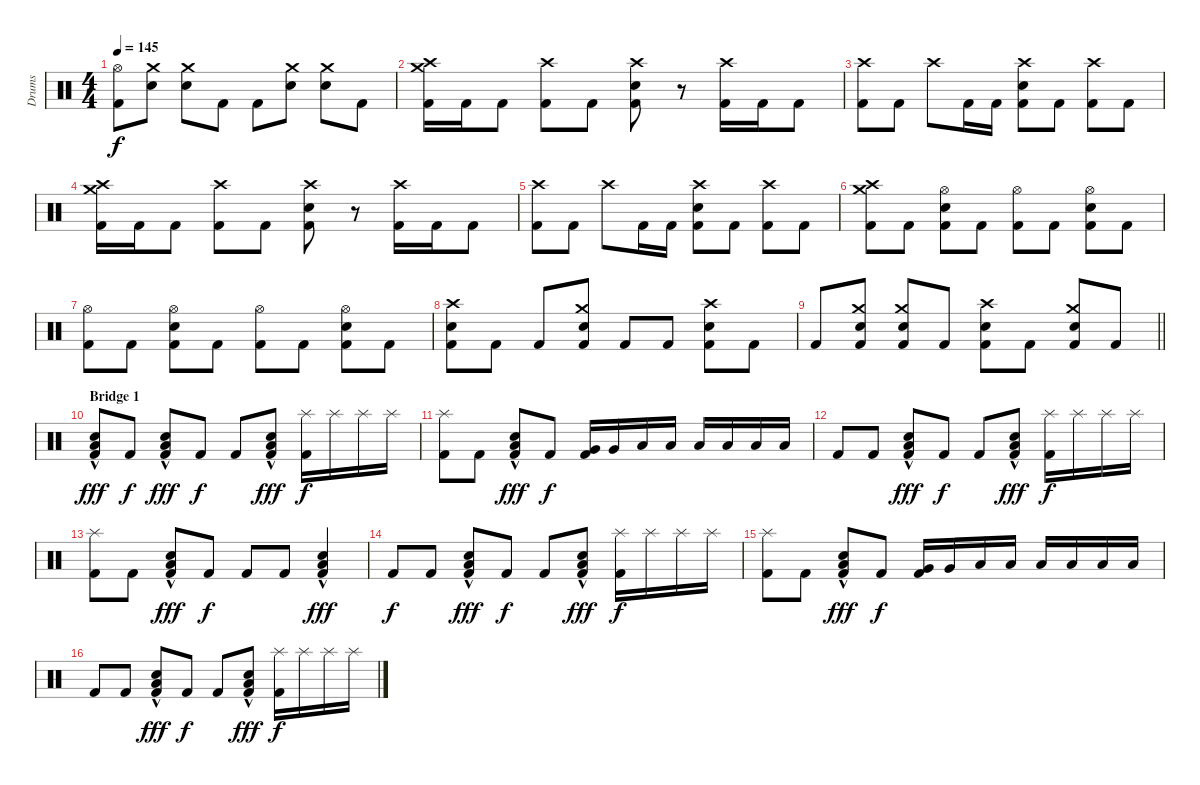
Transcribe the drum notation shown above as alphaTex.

\track ("Drums" "Drums") {instrument percussion}
\staff {score}
\articulation defaults
\ts (4 4)
\tempo 145
\clef neutral
\ks c
("Hi-Hat (open)" "Kick (hit) 2").8{dy f} ("Crash medium (hit)" "Electric Snare (hit)").8 ("Crash medium (hit)" "Electric Snare (hit)").8 "Kick (hit) 2".8 "Kick (hit) 2".8 ("Crash medium (hit)" "Electric Snare (hit)").8 ("Crash medium (hit)" "Electric Snare (hit)").8 "Kick (hit) 2".8 |
("Crash high (hit)" "Crash medium (hit)" "Kick (hit) 2").16 "Kick (hit) 2".16 "Kick (hit) 2".8 ("Crash high (hit)" "Kick (hit) 2").8 "Kick (hit) 2".8 ("Crash high (hit)" "Electric Snare (hit)" "Kick (hit) 2").8 r.8 ("Crash high (hit)" "Kick (hit) 2").16 "Kick (hit) 2".16 "Kick (hit) 2".8 |
("Crash high (hit)" "Kick (hit) 2").8 "Kick (hit) 2".8 "Crash high (hit)".8 "Kick (hit) 2".16 "Kick (hit) 2".16 ("Crash high (hit)" "Electric Snare (hit)" "Kick (hit) 2").8 "Kick (hit) 2".8 ("Crash high (hit)" "Kick (hit) 2").8 "Kick (hit) 2".8 |
("Crash high (hit)" "Crash medium (hit)" "Kick (hit) 2").16 "Kick (hit) 2".16 "Kick (hit) 2".8 ("Crash high (hit)" "Kick (hit) 2").8 "Kick (hit) 2".8 ("Crash high (hit)" "Electric Snare (hit)" "Kick (hit) 2").8 r.8 ("Crash high (hit)" "Kick (hit) 2").16 "Kick (hit) 2".16 "Kick (hit) 2".8 |
("Crash high (hit)" "Kick (hit) 2").8 "Kick (hit) 2".8 "Crash high (hit)".8 "Kick (hit) 2".16 "Kick (hit) 2".16 ("Crash high (hit)" "Electric Snare (hit)" "Kick (hit) 2").8 "Kick (hit) 2".8 ("Crash high (hit)" "Kick (hit) 2").8 "Kick (hit) 2".8 |
("Crash high (hit)" "Crash medium (hit)" "Kick (hit) 2").8 "Kick (hit) 2".8 ("Hi-Hat (open)" "Electric Snare (hit)" "Kick (hit) 2").8 "Kick (hit) 2".8 ("Hi-Hat (open)" "Kick (hit) 2").8 "Kick (hit) 2".8 ("Hi-Hat (open)" "Electric Snare (hit)" "Kick (hit) 2").8 "Kick (hit) 2".8 |
("Hi-Hat (open)" "Kick (hit) 2").8 "Kick (hit) 2".8 ("Hi-Hat (open)" "Electric Snare (hit)" "Kick (hit) 2").8 "Kick (hit) 2".8 ("Hi-Hat (open)" "Kick (hit) 2").8 "Kick (hit) 2".8 ("Hi-Hat (open)" "Electric Snare (hit)" "Kick (hit) 2").8 "Kick (hit) 2".8 |
("Crash high (hit)" "Electric Snare (hit)" "Kick (hit) 2").8 "Kick (hit) 2".8 "Kick (hit) 2".8 ("Crash medium (hit)" "Electric Snare (hit)" "Kick (hit) 2").8 "Kick (hit) 2".8 "Kick (hit) 2".8 ("Crash high (hit)" "Electric Snare (hit)" "Kick (hit) 2").8 "Kick (hit) 2".8 |
\barLineRight lightlight "Kick (hit) 2".8
("Crash medium (hit)" "Electric Snare (hit)" "Kick (hit) 2").8 ("Crash medium (hit)" "Electric Snare (hit)" "Kick (hit) 2").8 "Kick (hit) 2".8 ("Crash high (hit)" "Electric Snare (hit)" "Kick (hit) 2").8 "Kick (hit) 2".8 ("Crash medium (hit)" "Electric Snare (hit)" "Kick (hit) 2").8 "Kick (hit) 2".8 |
\section ("" "Bridge 1")
("Electric Snare (hit)" "Low Floor Tom (hit)"{hac} "Kick (hit) 2").8{dy fff} "Kick (hit) 2".8{dy f} ("Electric Snare (hit)" "Low Floor Tom (hit)"{hac} "Kick (hit) 2").8{dy fff} "Kick (hit) 2".8{dy f} "Kick (hit) 2".8 ("Electric Snare (hit)" "Low Floor Tom (hit)"{hac} "Kick (hit) 2").8{dy fff} ("Splash (hit)" "Kick (hit) 2").16{dy f} "Splash (hit)".16 "Splash (hit)".16 "Splash (hit)".16 |
("Splash (hit)" "Kick (hit) 2").8 "Kick (hit) 2".8 ("Electric Snare (hit)" "Low Floor Tom (hit)"{hac} "Kick (hit) 2").8{dy fff} "Kick (hit) 2".8{dy f} ("Very Low Tom (hit)" "Kick (hit) 2").16 "Very Low Tom (hit)".16 "Low Floor Tom (hit)".16 "Low Floor Tom (hit)".16 "Low Floor Tom (hit)".16 "Low Floor Tom (hit)".16 "Low Floor Tom (hit)".16 "Low Floor Tom (hit)".16 |
"Kick (hit) 2".8 "Kick (hit) 2".8 ("Electric Snare (hit)" "Low Floor Tom (hit)"{hac} "Kick (hit) 2").8{dy fff} "Kick (hit) 2".8{dy f} "Kick (hit) 2".8 ("Electric Snare (hit)" "Low Floor Tom (hit)"{hac} "Kick (hit) 2").8{dy fff} ("Splash (hit)" "Kick (hit) 2").16{dy f} "Splash (hit)".16 "Splash (hit)".16 "Splash (hit)".16 |
("Splash (hit)" "Kick (hit) 2").8 "Kick (hit) 2".8 ("Electric Snare (hit)" "Low Floor Tom (hit)"{hac} "Kick (hit) 2").8{dy fff} "Kick (hit) 2".8{dy f} "Kick (hit) 2".8 "Kick (hit) 2".8 ("Electric Snare (hit)" "Low Floor Tom (hit)"{hac} "Kick (hit) 2").4{dy fff} |
"Kick (hit) 2".8{dy f} "Kick (hit) 2".8 ("Electric Snare (hit)" "Low Floor Tom (hit)"{hac} "Kick (hit) 2").8{dy fff} "Kick (hit) 2".8{dy f} "Kick (hit) 2".8 ("Electric Snare (hit)" "Low Floor Tom (hit)"{hac} "Kick (hit) 2").8{dy fff} ("Splash (hit)" "Kick (hit) 2").16{dy f} "Splash (hit)".16 "Splash (hit)".16 "Splash (hit)".16 |
("Splash (hit)" "Kick (hit) 2").8 "Kick (hit) 2".8 ("Electric Snare (hit)" "Low Floor Tom (hit)"{hac} "Kick (hit) 2").8{dy fff} "Kick (hit) 2".8{dy f} ("Very Low Tom (hit)" "Kick (hit) 2").16 "Very Low Tom (hit)".16 "Low Floor Tom (hit)".16 "Low Floor Tom (hit)".16 "Low Floor Tom (hit)".16 "Low Floor Tom (hit)".16 "Low Floor Tom (hit)".16 "Low Floor Tom (hit)".16 |
"Kick (hit) 2".8 "Kick (hit) 2".8 ("Electric Snare (hit)" "Low Floor Tom (hit)"{hac} "Kick (hit) 2").8{dy fff} "Kick (hit) 2".8{dy f} "Kick (hit) 2".8 ("Electric Snare (hit)" "Low Floor Tom (hit)"{hac} "Kick (hit) 2").8{dy fff} ("Splash (hit)" "Kick (hit) 2").16{dy f} "Splash (hit)".16 "Splash (hit)".16 "Splash (hit)".16
